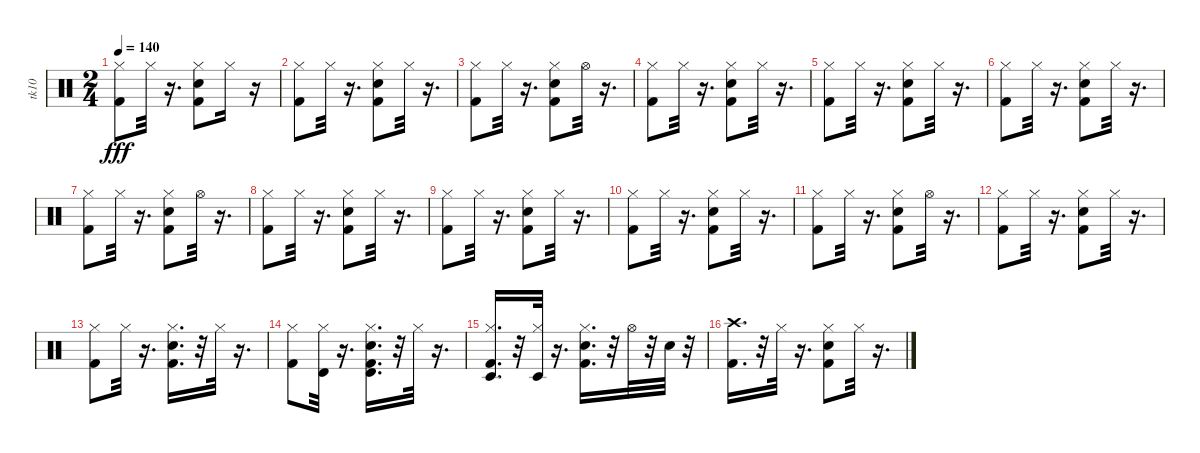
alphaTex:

\track ("tk10" "tk10") {instrument percussion}
\staff {score}
\articulation defaults
\ts (2 4)
\tempo 140
\clef neutral
\ks c
("Kick (hit) 2" "Hi-Hat (closed)").8{dy fff} "Hi-Hat (closed)".32 r.16{d} ("Snare (hit) 2" "Kick (hit) 2" "Hi-Hat (closed)").8 "Hi-Hat (closed)".16 r.16 |
("Kick (hit) 2" "Hi-Hat (closed)").8 "Hi-Hat (closed)".32 r.16{d} ("Snare (hit) 2" "Kick (hit) 2" "Hi-Hat (closed)").8 "Hi-Hat (closed)".32 r.16{d} |
("Kick (hit) 2" "Hi-Hat (closed)").8 "Hi-Hat (closed)".32 r.16{d} ("Kick (hit) 2" "Snare (hit) 2" "Hi-Hat (closed)").8 "Hi-Hat (open)".32 r.16{d} |
("Kick (hit) 2" "Hi-Hat (closed)").8 "Hi-Hat (closed)".32 r.16{d} ("Snare (hit) 2" "Kick (hit) 2" "Hi-Hat (closed)").8 "Hi-Hat (closed)".32 r.16{d} |
("Kick (hit) 2" "Hi-Hat (closed)").8 "Hi-Hat (closed)".32 r.16{d} ("Snare (hit) 2" "Kick (hit) 2" "Hi-Hat (closed)").8 "Hi-Hat (closed)".32 r.16{d} |
("Kick (hit) 2" "Hi-Hat (closed)").8 "Hi-Hat (closed)".32 r.16{d} ("Kick (hit) 2" "Hi-Hat (closed)" "Snare (hit) 2").8 "Hi-Hat (closed)".32 r.16{d} |
("Kick (hit) 2" "Hi-Hat (closed)").8 "Hi-Hat (closed)".32 r.16{d} ("Kick (hit) 2" "Snare (hit) 2" "Hi-Hat (closed)").8 "Hi-Hat (open)".32 r.16{d} |
("Kick (hit) 2" "Hi-Hat (closed)").8 "Hi-Hat (closed)".32 r.16{d} ("Snare (hit) 2" "Kick (hit) 2" "Hi-Hat (closed)").8 "Hi-Hat (closed)".32 r.16{d} |
("Kick (hit) 2" "Hi-Hat (closed)").8 "Hi-Hat (closed)".32 r.16{d} ("Snare (hit) 2" "Kick (hit) 2" "Hi-Hat (closed)").8 "Hi-Hat (closed)".32 r.16{d} |
("Kick (hit) 2" "Hi-Hat (closed)").8 "Hi-Hat (closed)".32 r.16{d} ("Snare (hit) 2" "Kick (hit) 2" "Hi-Hat (closed)").8 "Hi-Hat (closed)".32 r.16{d} |
("Kick (hit) 2" "Hi-Hat (closed)").8 "Hi-Hat (closed)".32 r.16{d} ("Snare (hit) 2" "Kick (hit) 2" "Hi-Hat (closed)").8 "Hi-Hat (open)".32 r.16{d} |
("Kick (hit) 2" "Hi-Hat (closed)").8 "Hi-Hat (closed)".32 r.16{d} ("Snare (hit) 2" "Kick (hit) 2" "Hi-Hat (closed)").8 "Hi-Hat (closed)".32 r.16{d} |
("Kick (hit) 2" "Hi-Hat (closed)").8 "Hi-Hat (closed)".32 r.16{d} ("Snare (hit) 2" "Kick (hit) 2" "Hi-Hat (closed)").16{d} r.32 "Hi-Hat (closed)".32 r.16{d} |
("Kick (hit) 2" "Hi-Hat (closed)").8 ("Timbale high (hit)" "Hi-Hat (closed)").32 r.16{d} ("Timbale high (hit)" "Snare (hit) 2" "Kick (hit) 2" "Hi-Hat (closed)").16{d} r.32 "Hi-Hat (closed)".32 r.16{d} |
("Hi-Hat (closed)" "Kick (hit) 2" "Timbale low (hit)").16{d} r.32 ("Timbale low (hit)" "Hi-Hat (closed)").32 r.16{d} ("Snare (hit) 2" "Kick (hit) 2" "Hi-Hat (closed)").16{d} r.32 "Hi-Hat (open)".32 r.32 "Snare (hit) 2".32 r.32 |
("Kick (hit) 2" "Crash high (hit)").16{d} r.32 "Hi-Hat (closed)".32 r.16{d} ("Snare (hit) 2" "Hi-Hat (closed)" "Kick (hit) 2").8 "Hi-Hat (closed)".32 r.16{d}
